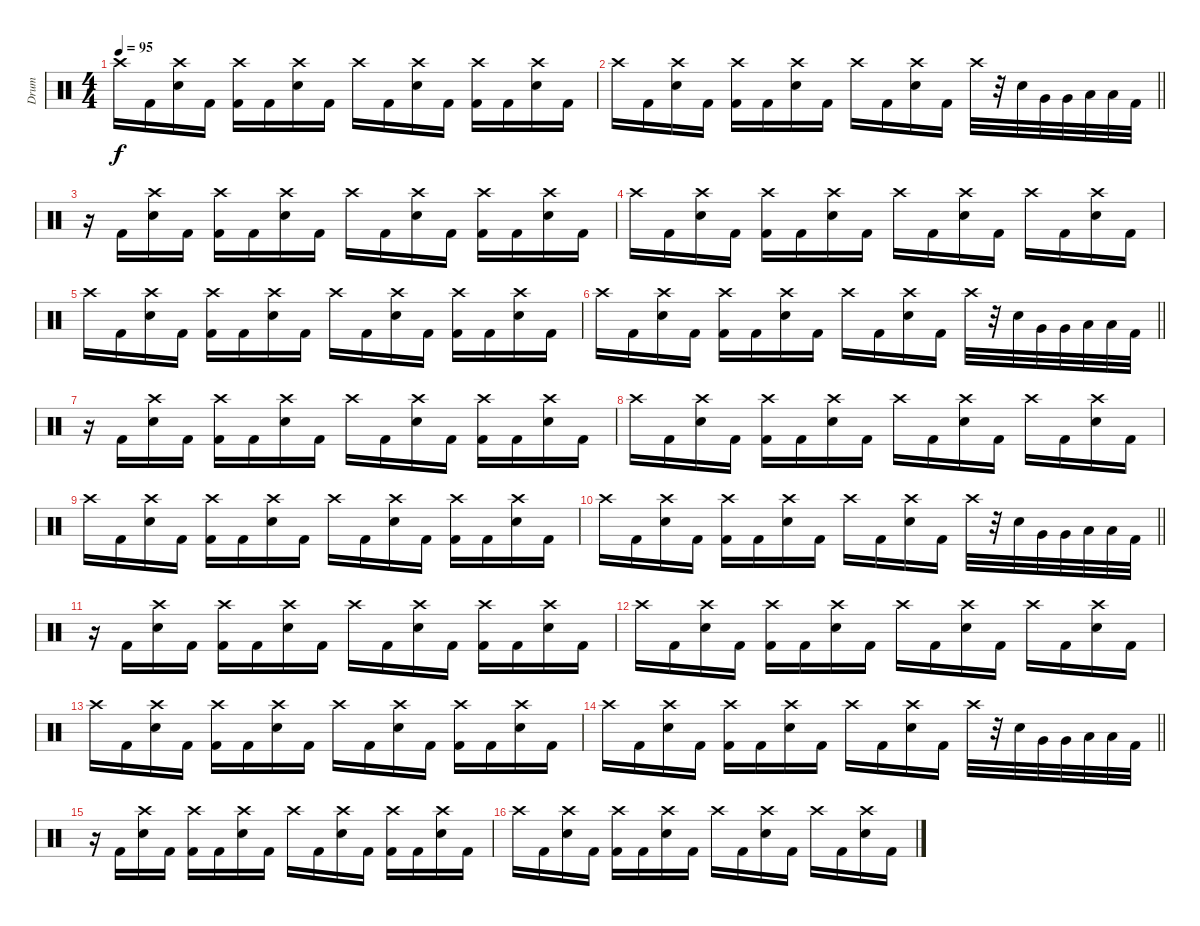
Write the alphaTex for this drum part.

\track ("Drum" "Drum") {instrument percussion}
\staff {score}
\articulation defaults
\ts (4 4)
\tempo 95
\clef neutral
\ks c "Crash high (hit)".16{dy f} "Kick (hit) 2".16
("Crash high (hit)" "Electric Snare (hit)").16 "Kick (hit) 2".16 ("Crash high (hit)" "Kick (hit) 2").16 "Kick (hit) 2".16 ("Crash high (hit)" "Electric Snare (hit)").16 "Kick (hit) 2".16 "Crash high (hit)".16 "Kick (hit) 2".16 ("Crash high (hit)" "Electric Snare (hit)").16 "Kick (hit) 2".16 ("Crash high (hit)" "Kick (hit) 2").16 "Kick (hit) 2".16 ("Crash high (hit)" "Electric Snare (hit)").16 "Kick (hit) 2".16 |
\barLineRight lightlight "Crash high (hit)".16 "Kick (hit) 2".16
("Crash high (hit)" "Electric Snare (hit)").16 "Kick (hit) 2".16 ("Crash high (hit)" "Kick (hit) 2").16 "Kick (hit) 2".16 ("Crash high (hit)" "Electric Snare (hit)").16 "Kick (hit) 2".16 "Crash high (hit)".16 "Kick (hit) 2".16 ("Crash high (hit)" "Electric Snare (hit)").16 "Kick (hit) 2".16 "Crash high (hit)".32 r.32 "Electric Snare (hit)".32 "Very Low Tom (hit)".32 "Very Low Tom (hit)".32 "Low Floor Tom (hit)".32 "Low Floor Tom (hit)".32 "Kick (hit) 2".32 |
r.16 "Kick (hit) 2".16 ("Crash high (hit)" "Electric Snare (hit)").16 "Kick (hit) 2".16 ("Crash high (hit)" "Kick (hit) 2").16 "Kick (hit) 2".16 ("Crash high (hit)" "Electric Snare (hit)").16 "Kick (hit) 2".16 "Crash high (hit)".16 "Kick (hit) 2".16 ("Crash high (hit)" "Electric Snare (hit)").16 "Kick (hit) 2".16 ("Crash high (hit)" "Kick (hit) 2").16 "Kick (hit) 2".16 ("Crash high (hit)" "Electric Snare (hit)").16 "Kick (hit) 2".16 |
"Crash high (hit)".16 "Kick (hit) 2".16 ("Crash high (hit)" "Electric Snare (hit)").16 "Kick (hit) 2".16 ("Crash high (hit)" "Kick (hit) 2").16 "Kick (hit) 2".16 ("Crash high (hit)" "Electric Snare (hit)").16 "Kick (hit) 2".16 "Crash high (hit)".16 "Kick (hit) 2".16 ("Crash high (hit)" "Electric Snare (hit)").16 "Kick (hit) 2".16 "Crash high (hit)".16 "Kick (hit) 2".16 ("Crash high (hit)" "Electric Snare (hit)").16 "Kick (hit) 2".16 |
"Crash high (hit)".16 "Kick (hit) 2".16 ("Crash high (hit)" "Electric Snare (hit)").16 "Kick (hit) 2".16 ("Crash high (hit)" "Kick (hit) 2").16 "Kick (hit) 2".16 ("Crash high (hit)" "Electric Snare (hit)").16 "Kick (hit) 2".16 "Crash high (hit)".16 "Kick (hit) 2".16 ("Crash high (hit)" "Electric Snare (hit)").16 "Kick (hit) 2".16 ("Crash high (hit)" "Kick (hit) 2").16 "Kick (hit) 2".16 ("Crash high (hit)" "Electric Snare (hit)").16 "Kick (hit) 2".16 |
\barLineRight lightlight "Crash high (hit)".16 "Kick (hit) 2".16
("Crash high (hit)" "Electric Snare (hit)").16 "Kick (hit) 2".16 ("Crash high (hit)" "Kick (hit) 2").16 "Kick (hit) 2".16 ("Crash high (hit)" "Electric Snare (hit)").16 "Kick (hit) 2".16 "Crash high (hit)".16 "Kick (hit) 2".16 ("Crash high (hit)" "Electric Snare (hit)").16 "Kick (hit) 2".16 "Crash high (hit)".32 r.32 "Electric Snare (hit)".32 "Very Low Tom (hit)".32 "Very Low Tom (hit)".32 "Low Floor Tom (hit)".32 "Low Floor Tom (hit)".32 "Kick (hit) 2".32 |
r.16 "Kick (hit) 2".16 ("Crash high (hit)" "Electric Snare (hit)").16 "Kick (hit) 2".16 ("Crash high (hit)" "Kick (hit) 2").16 "Kick (hit) 2".16 ("Crash high (hit)" "Electric Snare (hit)").16 "Kick (hit) 2".16 "Crash high (hit)".16 "Kick (hit) 2".16 ("Crash high (hit)" "Electric Snare (hit)").16 "Kick (hit) 2".16 ("Crash high (hit)" "Kick (hit) 2").16 "Kick (hit) 2".16 ("Crash high (hit)" "Electric Snare (hit)").16 "Kick (hit) 2".16 |
"Crash high (hit)".16 "Kick (hit) 2".16 ("Crash high (hit)" "Electric Snare (hit)").16 "Kick (hit) 2".16 ("Crash high (hit)" "Kick (hit) 2").16 "Kick (hit) 2".16 ("Crash high (hit)" "Electric Snare (hit)").16 "Kick (hit) 2".16 "Crash high (hit)".16 "Kick (hit) 2".16 ("Crash high (hit)" "Electric Snare (hit)").16 "Kick (hit) 2".16 "Crash high (hit)".16 "Kick (hit) 2".16 ("Crash high (hit)" "Electric Snare (hit)").16 "Kick (hit) 2".16 |
"Crash high (hit)".16 "Kick (hit) 2".16 ("Crash high (hit)" "Electric Snare (hit)").16 "Kick (hit) 2".16 ("Crash high (hit)" "Kick (hit) 2").16 "Kick (hit) 2".16 ("Crash high (hit)" "Electric Snare (hit)").16 "Kick (hit) 2".16 "Crash high (hit)".16 "Kick (hit) 2".16 ("Crash high (hit)" "Electric Snare (hit)").16 "Kick (hit) 2".16 ("Crash high (hit)" "Kick (hit) 2").16 "Kick (hit) 2".16 ("Crash high (hit)" "Electric Snare (hit)").16 "Kick (hit) 2".16 |
\barLineRight lightlight "Crash high (hit)".16 "Kick (hit) 2".16
("Crash high (hit)" "Electric Snare (hit)").16 "Kick (hit) 2".16 ("Crash high (hit)" "Kick (hit) 2").16 "Kick (hit) 2".16 ("Crash high (hit)" "Electric Snare (hit)").16 "Kick (hit) 2".16 "Crash high (hit)".16 "Kick (hit) 2".16 ("Crash high (hit)" "Electric Snare (hit)").16 "Kick (hit) 2".16 "Crash high (hit)".32 r.32 "Electric Snare (hit)".32 "Very Low Tom (hit)".32 "Very Low Tom (hit)".32 "Low Floor Tom (hit)".32 "Low Floor Tom (hit)".32 "Kick (hit) 2".32 |
r.16 "Kick (hit) 2".16 ("Crash high (hit)" "Electric Snare (hit)").16 "Kick (hit) 2".16 ("Crash high (hit)" "Kick (hit) 2").16 "Kick (hit) 2".16 ("Crash high (hit)" "Electric Snare (hit)").16 "Kick (hit) 2".16 "Crash high (hit)".16 "Kick (hit) 2".16 ("Crash high (hit)" "Electric Snare (hit)").16 "Kick (hit) 2".16 ("Crash high (hit)" "Kick (hit) 2").16 "Kick (hit) 2".16 ("Crash high (hit)" "Electric Snare (hit)").16 "Kick (hit) 2".16 |
"Crash high (hit)".16 "Kick (hit) 2".16 ("Crash high (hit)" "Electric Snare (hit)").16 "Kick (hit) 2".16 ("Crash high (hit)" "Kick (hit) 2").16 "Kick (hit) 2".16 ("Crash high (hit)" "Electric Snare (hit)").16 "Kick (hit) 2".16 "Crash high (hit)".16 "Kick (hit) 2".16 ("Crash high (hit)" "Electric Snare (hit)").16 "Kick (hit) 2".16 "Crash high (hit)".16 "Kick (hit) 2".16 ("Crash high (hit)" "Electric Snare (hit)").16 "Kick (hit) 2".16 |
"Crash high (hit)".16 "Kick (hit) 2".16 ("Crash high (hit)" "Electric Snare (hit)").16 "Kick (hit) 2".16 ("Crash high (hit)" "Kick (hit) 2").16 "Kick (hit) 2".16 ("Crash high (hit)" "Electric Snare (hit)").16 "Kick (hit) 2".16 "Crash high (hit)".16 "Kick (hit) 2".16 ("Crash high (hit)" "Electric Snare (hit)").16 "Kick (hit) 2".16 ("Crash high (hit)" "Kick (hit) 2").16 "Kick (hit) 2".16 ("Crash high (hit)" "Electric Snare (hit)").16 "Kick (hit) 2".16 |
\barLineRight lightlight "Crash high (hit)".16 "Kick (hit) 2".16
("Crash high (hit)" "Electric Snare (hit)").16 "Kick (hit) 2".16 ("Crash high (hit)" "Kick (hit) 2").16 "Kick (hit) 2".16 ("Crash high (hit)" "Electric Snare (hit)").16 "Kick (hit) 2".16 "Crash high (hit)".16 "Kick (hit) 2".16 ("Crash high (hit)" "Electric Snare (hit)").16 "Kick (hit) 2".16 "Crash high (hit)".32 r.32 "Electric Snare (hit)".32 "Very Low Tom (hit)".32 "Very Low Tom (hit)".32 "Low Floor Tom (hit)".32 "Low Floor Tom (hit)".32 "Kick (hit) 2".32 |
r.16 "Kick (hit) 2".16 ("Crash high (hit)" "Electric Snare (hit)").16 "Kick (hit) 2".16 ("Crash high (hit)" "Kick (hit) 2").16 "Kick (hit) 2".16 ("Crash high (hit)" "Electric Snare (hit)").16 "Kick (hit) 2".16 "Crash high (hit)".16 "Kick (hit) 2".16 ("Crash high (hit)" "Electric Snare (hit)").16 "Kick (hit) 2".16 ("Crash high (hit)" "Kick (hit) 2").16 "Kick (hit) 2".16 ("Crash high (hit)" "Electric Snare (hit)").16 "Kick (hit) 2".16 |
"Crash high (hit)".16 "Kick (hit) 2".16 ("Crash high (hit)" "Electric Snare (hit)").16 "Kick (hit) 2".16 ("Crash high (hit)" "Kick (hit) 2").16 "Kick (hit) 2".16 ("Crash high (hit)" "Electric Snare (hit)").16 "Kick (hit) 2".16 "Crash high (hit)".16 "Kick (hit) 2".16 ("Crash high (hit)" "Electric Snare (hit)").16 "Kick (hit) 2".16 "Crash high (hit)".16 "Kick (hit) 2".16 ("Crash high (hit)" "Electric Snare (hit)").16 "Kick (hit) 2".16
